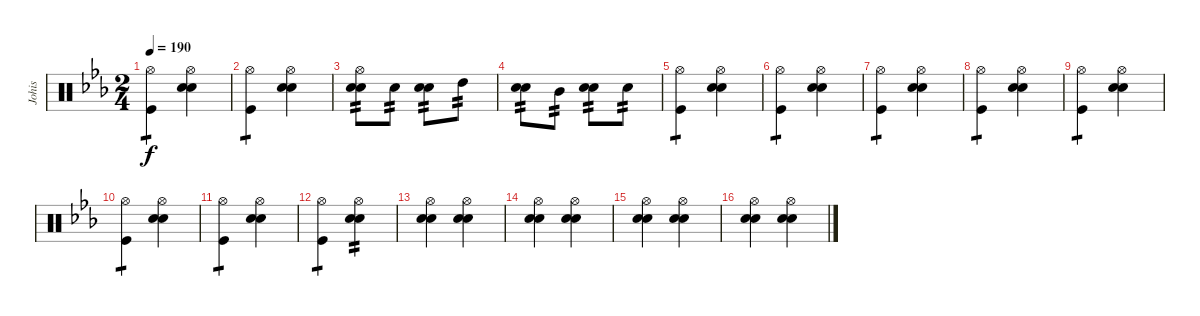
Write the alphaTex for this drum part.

\track ("Johis" "Johis") {instrument percussion}
\staff {score}
\articulation defaults
\ts (2 4)
\tempo 190
\clef neutral
\ks eb
("Hi-Hat (open)" "Kick (hit)").4{tp 1 dy f} ("Hi-Hat (open)" "Electric Snare (hit)" "Snare (hit) 2").4 |
("Hi-Hat (open)" "Kick (hit)").4{tp 1} ("Hi-Hat (open)" "Electric Snare (hit)" "Snare (hit) 2").4 |
("Hi-Hat (open)" "Electric Snare (hit)" "Snare (hit) 2").8{tp 2} "Electric Snare (hit)".8{tp 2} ("Electric Snare (hit)" "Snare (hit) 2").8{tp 2} "High Tom (hit)".8{tp 2} |
("Electric Snare (hit)" "Snare (hit) 2").8{tp 2} "Mid Tom (hit)".8{tp 2} ("Electric Snare (hit)" "Snare (hit) 2").8{tp 2} "Electric Snare (hit)".8{tp 2} |
("Hi-Hat (open)" "Kick (hit)").4{tp 1} ("Hi-Hat (open)" "Electric Snare (hit)" "Snare (hit) 2").4 |
("Hi-Hat (open)" "Kick (hit)").4{tp 1} ("Hi-Hat (open)" "Electric Snare (hit)" "Snare (hit) 2").4 |
("Hi-Hat (open)" "Kick (hit)").4{tp 1} ("Hi-Hat (open)" "Electric Snare (hit)" "Snare (hit) 2").4 |
("Hi-Hat (open)" "Kick (hit)").4{tp 1} ("Hi-Hat (open)" "Electric Snare (hit)" "Snare (hit) 2").4 |
("Hi-Hat (open)" "Kick (hit)").4{tp 1} ("Hi-Hat (open)" "Electric Snare (hit)" "Snare (hit) 2").4 |
("Hi-Hat (open)" "Kick (hit)").4{tp 1} ("Hi-Hat (open)" "Electric Snare (hit)" "Snare (hit) 2").4 |
("Hi-Hat (open)" "Kick (hit)").4{tp 1} ("Hi-Hat (open)" "Electric Snare (hit)" "Snare (hit) 2").4 |
("Hi-Hat (open)" "Kick (hit)").4{tp 1} ("Hi-Hat (open)" "Electric Snare (hit)" "Snare (hit) 2").4{tp 2} |
("Hi-Hat (open)" "Electric Snare (hit)" "Snare (hit) 2").4 ("Hi-Hat (open)" "Electric Snare (hit)" "Snare (hit) 2").4 |
("Hi-Hat (open)" "Electric Snare (hit)" "Snare (hit) 2").4 ("Hi-Hat (open)" "Electric Snare (hit)" "Snare (hit) 2").4 |
("Hi-Hat (open)" "Electric Snare (hit)" "Snare (hit) 2").4 ("Hi-Hat (open)" "Electric Snare (hit)" "Snare (hit) 2").4 |
("Hi-Hat (open)" "Electric Snare (hit)" "Snare (hit) 2").4 ("Hi-Hat (open)" "Electric Snare (hit)" "Snare (hit) 2").4
